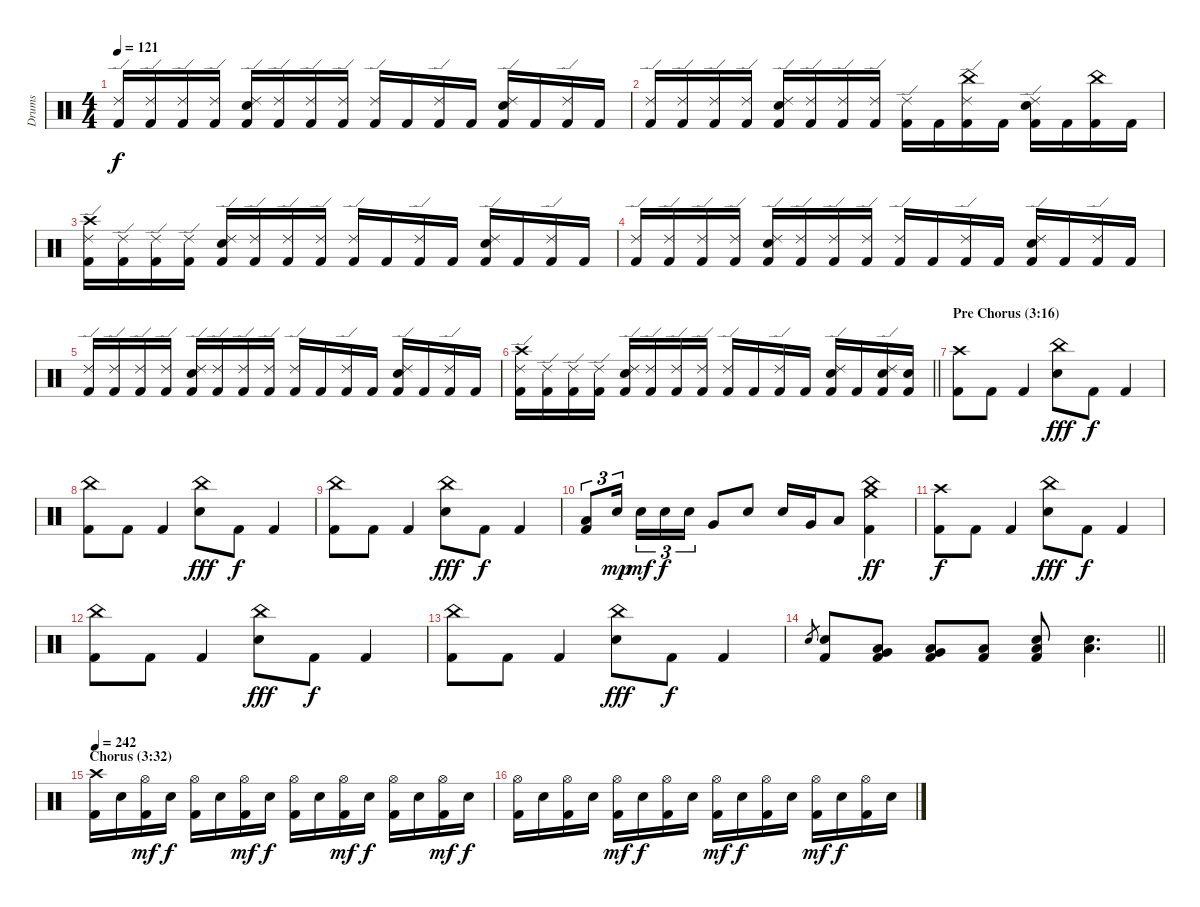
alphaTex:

\track ("Drums" "Drums") {instrument percussion}
\staff {score}
\articulation defaults
\ts (4 4)
\tempo 121
\clef neutral
\ks c
("Ride (edge) 2" "Kick (hit) 2").16{dy f} ("Ride (edge) 2" "Kick (hit) 2").16 ("Ride (edge) 2" "Kick (hit) 2").16 ("Ride (edge) 2" "Kick (hit) 2").16 ("Ride (edge) 2" "Electric Snare (hit)" "Kick (hit) 2").16 ("Ride (edge) 2" "Kick (hit) 2").16 ("Ride (edge) 2" "Kick (hit) 2").16 ("Ride (edge) 2" "Kick (hit) 2").16 ("Ride (edge) 2" "Kick (hit) 2").16 "Kick (hit) 2".16 ("Ride (edge) 2" "Kick (hit) 2").16 "Kick (hit) 2".16 ("Ride (edge) 2" "Electric Snare (hit)" "Kick (hit) 2").16 "Kick (hit) 2".16 ("Ride (edge) 2" "Kick (hit) 2").16 "Kick (hit) 2".16 |
("Ride (edge) 2" "Kick (hit) 2").16 ("Ride (edge) 2" "Kick (hit) 2").16 ("Ride (edge) 2" "Kick (hit) 2").16 ("Ride (edge) 2" "Kick (hit) 2").16 ("Ride (edge) 2" "Electric Snare (hit)" "Kick (hit) 2").16 ("Ride (edge) 2" "Kick (hit) 2").16 ("Ride (edge) 2" "Kick (hit) 2").16 ("Ride (edge) 2" "Kick (hit) 2").16 ("Ride (edge) 2" "Kick (hit) 2").16 "Kick (hit) 2".16 ("China (hit)" "Ride (edge) 2" "Kick (hit) 2").16 "Kick (hit) 2".16 ("Ride (edge) 2" "Electric Snare (hit)" "Kick (hit) 2").16 "Kick (hit) 2".16 ("China (hit)" "Kick (hit) 2").16 "Kick (hit) 2".16 |
("Crash high (hit)" "Ride (edge) 2" "Kick (hit) 2").16 ("Ride (edge) 2" "Kick (hit) 2").16 ("Ride (edge) 2" "Kick (hit) 2").16 ("Ride (edge) 2" "Kick (hit) 2").16 ("Ride (edge) 2" "Electric Snare (hit)" "Kick (hit) 2").16 ("Ride (edge) 2" "Kick (hit) 2").16 ("Ride (edge) 2" "Kick (hit) 2").16 ("Ride (edge) 2" "Kick (hit) 2").16 ("Ride (edge) 2" "Kick (hit) 2").16 "Kick (hit) 2".16 ("Ride (edge) 2" "Kick (hit) 2").16 "Kick (hit) 2".16 ("Ride (edge) 2" "Electric Snare (hit)" "Kick (hit) 2").16 "Kick (hit) 2".16 ("Ride (edge) 2" "Kick (hit) 2").16 "Kick (hit) 2".16 |
("Ride (edge) 2" "Kick (hit) 2").16 ("Ride (edge) 2" "Kick (hit) 2").16 ("Ride (edge) 2" "Kick (hit) 2").16 ("Ride (edge) 2" "Kick (hit) 2").16 ("Ride (edge) 2" "Electric Snare (hit)" "Kick (hit) 2").16 ("Ride (edge) 2" "Kick (hit) 2").16 ("Ride (edge) 2" "Kick (hit) 2").16 ("Ride (edge) 2" "Kick (hit) 2").16 ("Ride (edge) 2" "Kick (hit) 2").16 "Kick (hit) 2".16 ("Ride (edge) 2" "Kick (hit) 2").16 "Kick (hit) 2".16 ("Ride (edge) 2" "Electric Snare (hit)" "Kick (hit) 2").16 "Kick (hit) 2".16 ("Ride (edge) 2" "Kick (hit) 2").16 "Kick (hit) 2".16 |
("Ride (edge) 2" "Kick (hit) 2").16 ("Ride (edge) 2" "Kick (hit) 2").16 ("Ride (edge) 2" "Kick (hit) 2").16 ("Ride (edge) 2" "Kick (hit) 2").16 ("Ride (edge) 2" "Electric Snare (hit)" "Kick (hit) 2").16 ("Ride (edge) 2" "Kick (hit) 2").16 ("Ride (edge) 2" "Kick (hit) 2").16 ("Ride (edge) 2" "Kick (hit) 2").16 ("Ride (edge) 2" "Kick (hit) 2").16 "Kick (hit) 2".16 ("Ride (edge) 2" "Kick (hit) 2").16 "Kick (hit) 2".16 ("Ride (edge) 2" "Electric Snare (hit)" "Kick (hit) 2").16 "Kick (hit) 2".16 ("Ride (edge) 2" "Kick (hit) 2").16 "Kick (hit) 2".16 |
\barLineRight lightlight
("Crash high (hit)" "Ride (edge) 2" "Kick (hit) 2").16 ("Ride (edge) 2" "Kick (hit) 2").16 ("Ride (edge) 2" "Kick (hit) 2").16 ("Ride (edge) 2" "Kick (hit) 2").16 ("Ride (edge) 2" "Electric Snare (hit)" "Kick (hit) 2").16 ("Ride (edge) 2" "Kick (hit) 2").16 ("Ride (edge) 2" "Kick (hit) 2").16 ("Ride (edge) 2" "Kick (hit) 2").16 ("Ride (edge) 2" "Kick (hit) 2").16 "Kick (hit) 2".16 ("Ride (edge) 2" "Kick (hit) 2").16 "Kick (hit) 2".16 ("Ride (edge) 2" "Electric Snare (hit)" "Kick (hit) 2").16 "Kick (hit) 2".16 ("Ride (edge) 2" "Electric Snare (hit)" "Kick (hit) 2").16 ("Electric Snare (hit)" "Kick (hit) 2").16 |
\section ("" "Pre Chorus (3:16)")
("Crash high (hit)" "Kick (hit) 2").8 "Kick (hit) 2".8 "Kick (hit) 2".4 ("China (hit)" "Electric Snare (hit)").8{dy fff} "Kick (hit) 2".8{dy f} "Kick (hit) 2".4 |
("China (hit)" "Kick (hit) 2").8 "Kick (hit) 2".8 "Kick (hit) 2".4 ("China (hit)" "Electric Snare (hit)").8{dy fff} "Kick (hit) 2".8{dy f} "Kick (hit) 2".4 |
("China (hit)" "Kick (hit) 2").8 "Kick (hit) 2".8 "Kick (hit) 2".4 ("China (hit)" "Electric Snare (hit)").8{dy fff} "Kick (hit) 2".8{dy f} "Kick (hit) 2".4 |
("Low Floor Tom (hit)" "Kick (hit) 2").8{tu (3 2)} "Electric Snare (hit)".16{tu (3 2) dy mp beam splitsecondary} "Electric Snare (hit)".16{tu (3 2) dy mf} "Electric Snare (hit)".16{tu (3 2) dy f} "Electric Snare (hit)".16{tu (3 2)} "Very Low Tom (hit)".8 "Electric Snare (hit)".8 "Electric Snare (hit)".16 "Very Low Tom (hit)".16 "Low Floor Tom (hit)".8 ("Crash medium (hit)" "China (hit)" "Kick (hit) 2").4{dy ff} |
("Crash high (hit)" "Kick (hit) 2").8{dy f} "Kick (hit) 2".8 "Kick (hit) 2".4 ("China (hit)" "Electric Snare (hit)").8{dy fff} "Kick (hit) 2".8{dy f} "Kick (hit) 2".4 |
("China (hit)" "Kick (hit) 2").8 "Kick (hit) 2".8 "Kick (hit) 2".4 ("China (hit)" "Electric Snare (hit)").8{dy fff} "Kick (hit) 2".8{dy f} "Kick (hit) 2".4 |
("China (hit)" "Kick (hit) 2").8 "Kick (hit) 2".8 "Kick (hit) 2".4 ("China (hit)" "Electric Snare (hit)").8{dy fff} "Kick (hit) 2".8{dy f} "Kick (hit) 2".4 |
\barLineRight lightlight "Electric Snare (hit)".8{gr}
("Electric Snare (hit)" "Kick (hit) 2").8 ("Low Tom (hit)" "Very Low Tom (hit)" "Kick (hit) 2").8 ("Very Low Tom (hit)" "Low Floor Tom (hit)" "Kick (hit) 2").8 ("Low Floor Tom (hit)" "Kick (hit) 2").8 ("Electric Snare (hit)" "Low Floor Tom (hit)" "Kick (hit) 2").8 ("Electric Snare (hit)" "Low Floor Tom (hit)").4{d} |
\section ("" "Chorus (3:32)")
\tempo 242
("Crash high (hit)" "Kick (hit) 2").16{volume 14} "Electric Snare (hit)".16 ("Hi-Hat (open)" "Kick (hit) 2").16{dy mf} "Electric Snare (hit)".16{dy f} ("Hi-Hat (open)" "Kick (hit) 2").16 "Electric Snare (hit)".16 ("Hi-Hat (open)" "Kick (hit) 2").16{dy mf} "Electric Snare (hit)".16{dy f} ("Hi-Hat (open)" "Kick (hit) 2").16 "Electric Snare (hit)".16 ("Hi-Hat (open)" "Kick (hit) 2").16{dy mf} "Electric Snare (hit)".16{dy f} ("Hi-Hat (open)" "Kick (hit) 2").16 "Electric Snare (hit)".16 ("Hi-Hat (open)" "Kick (hit) 2").16{dy mf} "Electric Snare (hit)".16{dy f} |
("Hi-Hat (open)" "Kick (hit) 2").16 "Electric Snare (hit)".16 ("Hi-Hat (open)" "Kick (hit) 2").16 "Electric Snare (hit)".16 ("Hi-Hat (open)" "Kick (hit) 2").16{dy mf} "Electric Snare (hit)".16{dy f} ("Hi-Hat (open)" "Kick (hit) 2").16 "Electric Snare (hit)".16 ("Hi-Hat (open)" "Kick (hit) 2").16{dy mf} "Electric Snare (hit)".16{dy f} ("Hi-Hat (open)" "Kick (hit) 2").16 "Electric Snare (hit)".16 ("Hi-Hat (open)" "Kick (hit) 2").16{dy mf} "Electric Snare (hit)".16{dy f} ("Hi-Hat (open)" "Kick (hit) 2").16 "Electric Snare (hit)".16
